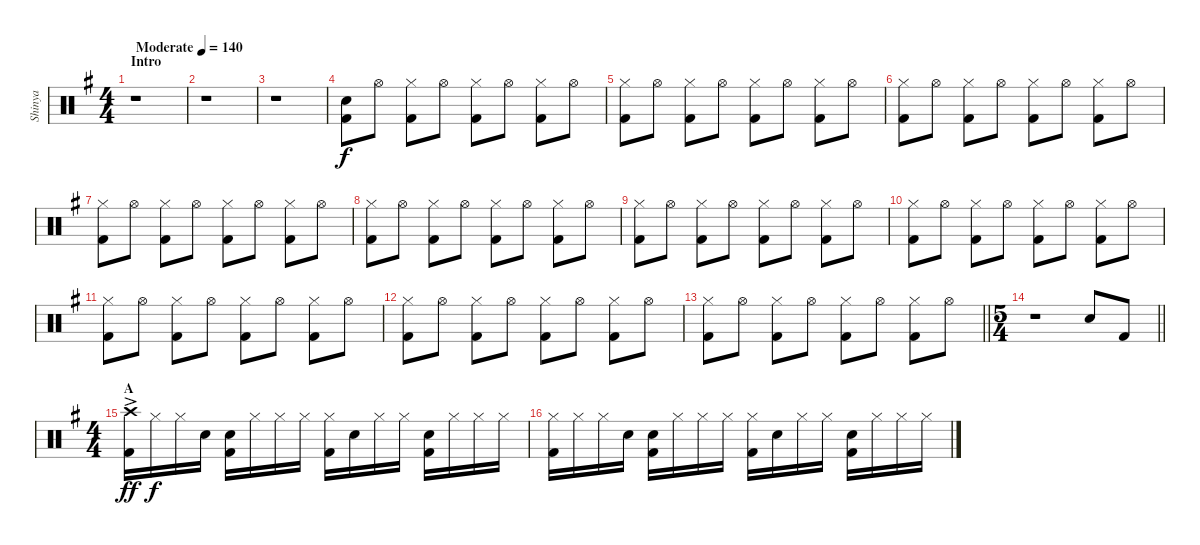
\track ("Shinya" "Shinya") {instrument percussion}
\staff {score}
\articulation defaults
\ts (4 4)
\section ("" "Intro ")
\tempo (140 "Moderate")
\clef neutral
\ks g
r.1{dy f} |
r.1 |
r.1 |
("Snare (hit) 2" "Kick (hit) 2").8 "Hi-Hat (open)".8 ("Hi-Hat (closed)" "Kick (hit) 2").8 "Hi-Hat (open)".8 ("Hi-Hat (closed)" "Kick (hit) 2").8 "Hi-Hat (open)".8 ("Hi-Hat (closed)" "Kick (hit) 2").8 "Hi-Hat (open)".8 |
("Hi-Hat (closed)" "Kick (hit) 2").8 "Hi-Hat (open)".8 ("Hi-Hat (closed)" "Kick (hit) 2").8 "Hi-Hat (open)".8 ("Hi-Hat (closed)" "Kick (hit) 2").8 "Hi-Hat (open)".8 ("Hi-Hat (closed)" "Kick (hit) 2").8 "Hi-Hat (open)".8 |
("Hi-Hat (closed)" "Kick (hit) 2").8 "Hi-Hat (open)".8 ("Hi-Hat (closed)" "Kick (hit) 2").8 "Hi-Hat (open)".8 ("Hi-Hat (closed)" "Kick (hit) 2").8 "Hi-Hat (open)".8 ("Hi-Hat (closed)" "Kick (hit) 2").8 "Hi-Hat (open)".8 |
("Hi-Hat (closed)" "Kick (hit) 2").8 "Hi-Hat (open)".8 ("Hi-Hat (closed)" "Kick (hit) 2").8 "Hi-Hat (open)".8 ("Hi-Hat (closed)" "Kick (hit) 2").8 "Hi-Hat (open)".8 ("Hi-Hat (closed)" "Kick (hit) 2").8 "Hi-Hat (open)".8 |
("Hi-Hat (closed)" "Kick (hit) 2").8 "Hi-Hat (open)".8 ("Hi-Hat (closed)" "Kick (hit) 2").8 "Hi-Hat (open)".8 ("Hi-Hat (closed)" "Kick (hit) 2").8 "Hi-Hat (open)".8 ("Hi-Hat (closed)" "Kick (hit) 2").8 "Hi-Hat (open)".8 |
("Hi-Hat (closed)" "Kick (hit) 2").8 "Hi-Hat (open)".8 ("Hi-Hat (closed)" "Kick (hit) 2").8 "Hi-Hat (open)".8 ("Hi-Hat (closed)" "Kick (hit) 2").8 "Hi-Hat (open)".8 ("Hi-Hat (closed)" "Kick (hit) 2").8 "Hi-Hat (open)".8 |
("Hi-Hat (closed)" "Kick (hit) 2").8 "Hi-Hat (open)".8 ("Hi-Hat (closed)" "Kick (hit) 2").8 "Hi-Hat (open)".8 ("Hi-Hat (closed)" "Kick (hit) 2").8 "Hi-Hat (open)".8 ("Hi-Hat (closed)" "Kick (hit) 2").8 "Hi-Hat (open)".8 |
("Hi-Hat (closed)" "Kick (hit) 2").8 "Hi-Hat (open)".8 ("Hi-Hat (closed)" "Kick (hit) 2").8 "Hi-Hat (open)".8 ("Hi-Hat (closed)" "Kick (hit) 2").8 "Hi-Hat (open)".8 ("Hi-Hat (closed)" "Kick (hit) 2").8 "Hi-Hat (open)".8 |
("Hi-Hat (closed)" "Kick (hit) 2").8 "Hi-Hat (open)".8 ("Hi-Hat (closed)" "Kick (hit) 2").8 "Hi-Hat (open)".8 ("Hi-Hat (closed)" "Kick (hit) 2").8 "Hi-Hat (open)".8 ("Hi-Hat (closed)" "Kick (hit) 2").8 "Hi-Hat (open)".8 |
\barLineRight lightlight
("Hi-Hat (closed)" "Kick (hit) 2").8 "Hi-Hat (open)".8 ("Hi-Hat (closed)" "Kick (hit) 2").8 "Hi-Hat (open)".8 ("Hi-Hat (closed)" "Kick (hit) 2").8 "Hi-Hat (open)".8 ("Hi-Hat (closed)" "Kick (hit) 2").8 "Hi-Hat (open)".8 |
\ts (5 4)
\barLineRight lightlight
r.1 "Snare (hit) 2".8 "Kick (hit) 2".8 |
\ts (4 4)
\section ("" "A")
("Crash high (hit)"{ac} "Kick (hit) 2").16{dy ff} "Hi-Hat (closed)".16{dy f} "Hi-Hat (closed)".16 "Snare (hit) 2".16 ("Snare (hit) 2" "Kick (hit) 2").16 "Hi-Hat (closed)".16 "Hi-Hat (closed)".16 "Hi-Hat (closed)".16 ("Hi-Hat (closed)" "Kick (hit) 2").16 "Snare (hit) 2".16 "Hi-Hat (closed)".16 "Hi-Hat (closed)".16 ("Snare (hit) 2" "Kick (hit) 2").16 "Hi-Hat (closed)".16 "Hi-Hat (closed)".16 "Hi-Hat (closed)".16 |
("Hi-Hat (closed)" "Kick (hit) 2").16 "Hi-Hat (closed)".16 "Hi-Hat (closed)".16 "Snare (hit) 2".16 ("Snare (hit) 2" "Kick (hit) 2").16 "Hi-Hat (closed)".16 "Hi-Hat (closed)".16 "Hi-Hat (closed)".16 ("Hi-Hat (closed)" "Kick (hit) 2").16 "Snare (hit) 2".16 "Hi-Hat (closed)".16 "Hi-Hat (closed)".16 ("Snare (hit) 2" "Kick (hit) 2").16 "Hi-Hat (closed)".16 "Hi-Hat (closed)".16 "Hi-Hat (closed)".16
